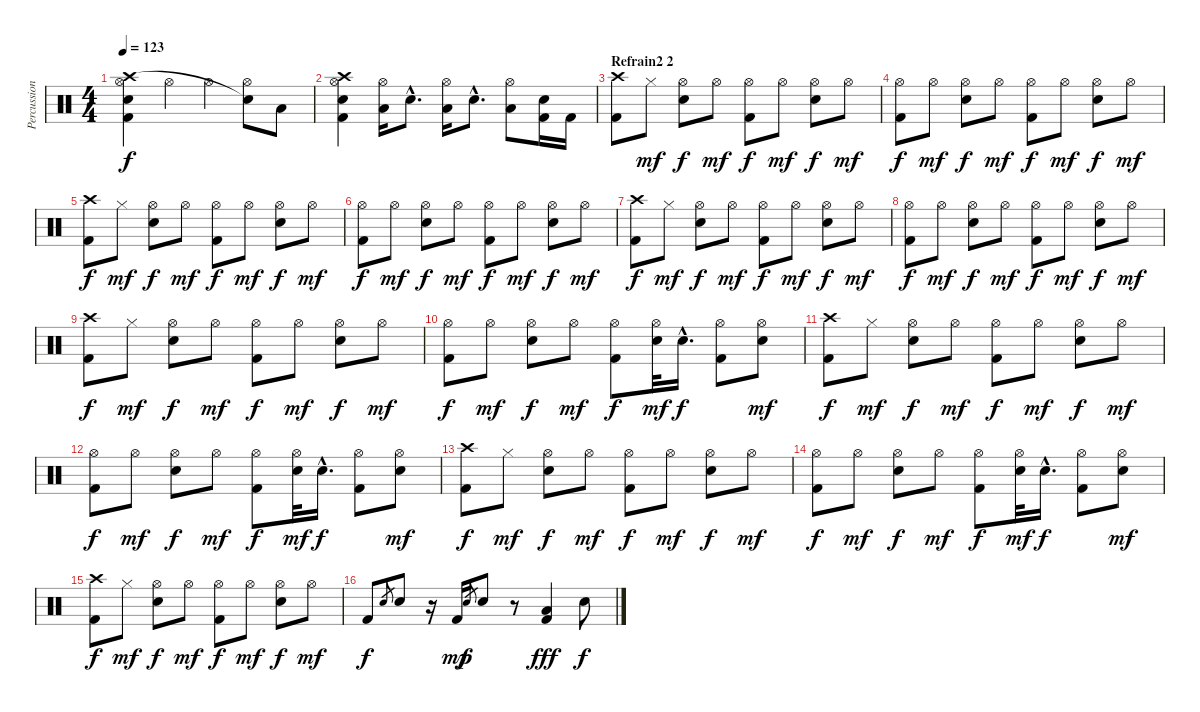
\track ("Percussions" "Percussion") {instrument percussion}
\staff {score}
\articulation defaults
\ts (4 4)
\tempo 123
\clef neutral
\ks c
("Hi-Hat (open)" "Crash high (hit)" "Electric Snare (hit)" "Kick (hit) 2").4{dy f} "Hi-Hat (open)".4 "Hi-Hat (open)".4 ("Hi-Hat (open)" "Snare (hit)"{t}).8 "Low Floor Tom (hit)".8 |
("Hi-Hat (open)" "Crash high (hit)" "Electric Snare (hit)" "Kick (hit) 2").4 ("Hi-Hat (open)" "Low Floor Tom (hit)").16 "Electric Snare (hit)"{hac}.8{d} ("Hi-Hat (open)" "Low Floor Tom (hit)").16 "Electric Snare (hit)"{hac}.8{d} ("Hi-Hat (open)" "Low Floor Tom (hit)").8 ("Electric Snare (hit)" "Kick (hit) 2").16 "Kick (hit) 2".16 |
\section ("" "Refrain2 2")
("Crash high (hit)" "Kick (hit) 2").8 "Hi-Hat (closed)".8{dy mf} ("Hi-Hat (open)" "Electric Snare (hit)").8{dy f} "Hi-Hat (open)".8{dy mf} ("Hi-Hat (open)" "Kick (hit) 2").8{dy f} "Hi-Hat (open)".8{dy mf} ("Hi-Hat (open)" "Electric Snare (hit)").8{dy f} "Hi-Hat (open)".8{dy mf} |
("Hi-Hat (open)" "Kick (hit) 2").8{dy f} "Hi-Hat (open)".8{dy mf} ("Hi-Hat (open)" "Electric Snare (hit)").8{dy f} "Hi-Hat (open)".8{dy mf} ("Hi-Hat (open)" "Kick (hit) 2").8{dy f} "Hi-Hat (open)".8{dy mf} ("Hi-Hat (open)" "Electric Snare (hit)").8{dy f} "Hi-Hat (open)".8{dy mf} |
("Crash high (hit)" "Kick (hit) 2").8{dy f} "Hi-Hat (closed)".8{dy mf} ("Hi-Hat (open)" "Electric Snare (hit)").8{dy f} "Hi-Hat (open)".8{dy mf} ("Hi-Hat (open)" "Kick (hit) 2").8{dy f} "Hi-Hat (open)".8{dy mf} ("Hi-Hat (open)" "Electric Snare (hit)").8{dy f} "Hi-Hat (open)".8{dy mf} |
("Hi-Hat (open)" "Kick (hit) 2").8{dy f} "Hi-Hat (open)".8{dy mf} ("Hi-Hat (open)" "Electric Snare (hit)").8{dy f} "Hi-Hat (open)".8{dy mf} ("Hi-Hat (open)" "Kick (hit) 2").8{dy f} "Hi-Hat (open)".8{dy mf} ("Hi-Hat (open)" "Electric Snare (hit)").8{dy f} "Hi-Hat (open)".8{dy mf} |
("Crash high (hit)" "Kick (hit) 2").8{dy f} "Hi-Hat (closed)".8{dy mf} ("Hi-Hat (open)" "Electric Snare (hit)").8{dy f} "Hi-Hat (open)".8{dy mf} ("Hi-Hat (open)" "Kick (hit) 2").8{dy f} "Hi-Hat (open)".8{dy mf} ("Hi-Hat (open)" "Electric Snare (hit)").8{dy f} "Hi-Hat (open)".8{dy mf} |
("Hi-Hat (open)" "Kick (hit) 2").8{dy f} "Hi-Hat (open)".8{dy mf} ("Hi-Hat (open)" "Electric Snare (hit)").8{dy f} "Hi-Hat (open)".8{dy mf} ("Hi-Hat (open)" "Kick (hit) 2").8{dy f} "Hi-Hat (open)".8{dy mf} ("Hi-Hat (open)" "Electric Snare (hit)").8{dy f} "Hi-Hat (open)".8{dy mf} |
("Crash high (hit)" "Kick (hit) 2").8{dy f} "Hi-Hat (closed)".8{dy mf} ("Hi-Hat (open)" "Electric Snare (hit)").8{dy f} "Hi-Hat (open)".8{dy mf} ("Hi-Hat (open)" "Kick (hit) 2").8{dy f} "Hi-Hat (open)".8{dy mf} ("Hi-Hat (open)" "Electric Snare (hit)").8{dy f} "Hi-Hat (open)".8{dy mf} |
("Hi-Hat (open)" "Kick (hit) 2").8{dy f} "Hi-Hat (open)".8{dy mf} ("Hi-Hat (open)" "Electric Snare (hit)").8{dy f} "Hi-Hat (open)".8{dy mf} ("Hi-Hat (open)" "Kick (hit) 2").8{dy f} ("Hi-Hat (open)" "Electric Snare (hit)").32{dy mf} "Electric Snare (hit)"{hac}.16{d dy f} ("Hi-Hat (open)" "Kick (hit) 2").8 ("Hi-Hat (open)" "Electric Snare (hit)").8{dy mf} |
("Crash high (hit)" "Kick (hit) 2").8{dy f} "Hi-Hat (closed)".8{dy mf} ("Hi-Hat (open)" "Electric Snare (hit)").8{dy f} "Hi-Hat (open)".8{dy mf} ("Hi-Hat (open)" "Kick (hit) 2").8{dy f} "Hi-Hat (open)".8{dy mf} ("Hi-Hat (open)" "Electric Snare (hit)").8{dy f} "Hi-Hat (open)".8{dy mf} |
("Hi-Hat (open)" "Kick (hit) 2").8{dy f} "Hi-Hat (open)".8{dy mf} ("Hi-Hat (open)" "Electric Snare (hit)").8{dy f} "Hi-Hat (open)".8{dy mf} ("Hi-Hat (open)" "Kick (hit) 2").8{dy f} ("Hi-Hat (open)" "Electric Snare (hit)").32{dy mf} "Electric Snare (hit)"{hac}.16{d dy f} ("Hi-Hat (open)" "Kick (hit) 2").8 ("Hi-Hat (open)" "Electric Snare (hit)").8{dy mf} |
("Crash high (hit)" "Kick (hit) 2").8{dy f} "Hi-Hat (closed)".8{dy mf} ("Hi-Hat (open)" "Electric Snare (hit)").8{dy f} "Hi-Hat (open)".8{dy mf} ("Hi-Hat (open)" "Kick (hit) 2").8{dy f} "Hi-Hat (open)".8{dy mf} ("Hi-Hat (open)" "Electric Snare (hit)").8{dy f} "Hi-Hat (open)".8{dy mf} |
("Hi-Hat (open)" "Kick (hit) 2").8{dy f} "Hi-Hat (open)".8{dy mf} ("Hi-Hat (open)" "Electric Snare (hit)").8{dy f} "Hi-Hat (open)".8{dy mf} ("Hi-Hat (open)" "Kick (hit) 2").8{dy f} ("Hi-Hat (open)" "Electric Snare (hit)").32{dy mf} "Electric Snare (hit)"{hac}.16{d dy f} ("Hi-Hat (open)" "Kick (hit) 2").8 ("Hi-Hat (open)" "Electric Snare (hit)").8{dy mf} |
("Crash high (hit)" "Kick (hit) 2").8{dy f} "Hi-Hat (closed)".8{dy mf} ("Hi-Hat (open)" "Electric Snare (hit)").8{dy f} "Hi-Hat (open)".8{dy mf} ("Hi-Hat (open)" "Kick (hit) 2").8{dy f} "Hi-Hat (open)".8{dy mf} ("Hi-Hat (open)" "Electric Snare (hit)").8{dy f} "Hi-Hat (open)".8{dy mf} |
"Kick (hit) 2".8{dy f} "Electric Snare (hit)"{sl}.8{gr} "Electric Snare (hit)".8 r.16 "Kick (hit) 2".16{dy mp} "Electric Snare (hit)"{sl}.8{gr dy f} "Electric Snare (hit)".8 r.8 ("Low Floor Tom (hit)" "Kick (hit) 2").4{dy fff} "Electric Snare (hit)".8{dy f}
